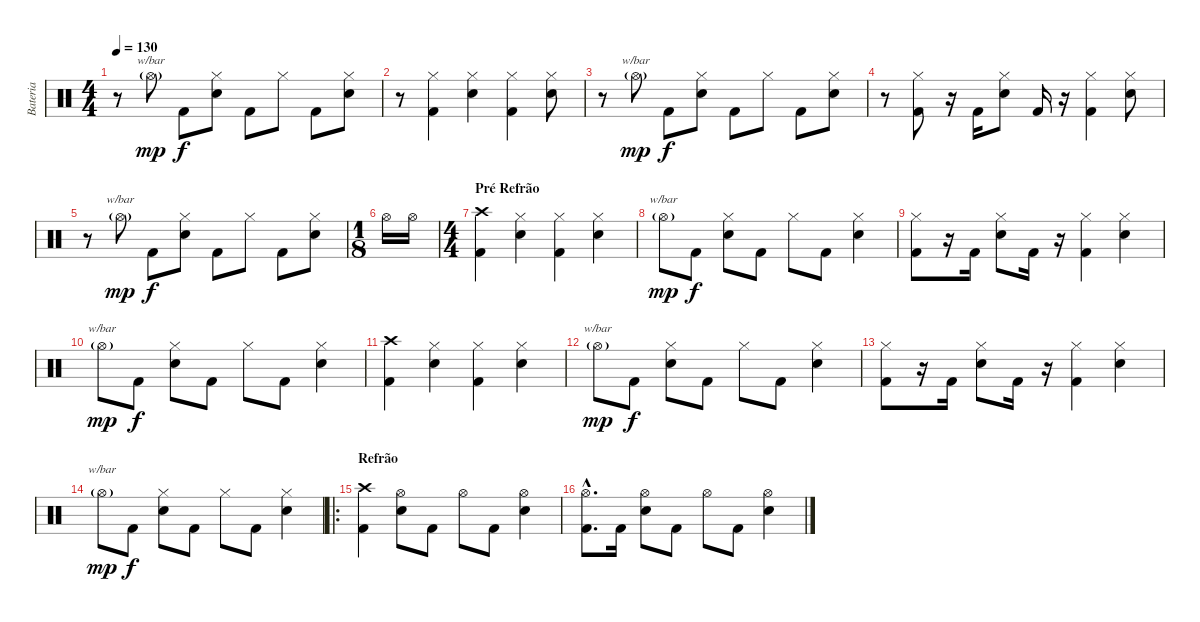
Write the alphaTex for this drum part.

\track ("Bateria" "Bateria") {instrument percussion}
\staff {score}
\articulation defaults
\ts (4 4)
\tempo 130
\clef neutral
\ks c
r.8{dy f} "Hi-Hat (open)"{g}.8{tbe (custom default 0 0 45 2 60 2) dy mp} "Kick (hit) 2".8{dy f} ("Hi-Hat (closed)" "Electric Snare (hit)").8 "Kick (hit) 2".8 "Hi-Hat (closed)".8 "Kick (hit) 2".8 ("Hi-Hat (closed)" "Electric Snare (hit)").8 |
r.8 ("Hi-Hat (closed)" "Kick (hit) 2").4 ("Hi-Hat (closed)" "Electric Snare (hit)").4 ("Hi-Hat (closed)" "Kick (hit) 2").4 ("Hi-Hat (closed)" "Electric Snare (hit)").8 |
r.8 "Hi-Hat (open)"{g}.8{tbe (custom default 0 0 45 2 60 2) dy mp} "Kick (hit) 2".8{dy f} ("Hi-Hat (closed)" "Electric Snare (hit)").8 "Kick (hit) 2".8 "Hi-Hat (closed)".8 "Kick (hit) 2".8 ("Hi-Hat (closed)" "Electric Snare (hit)").8 |
r.8 ("Hi-Hat (closed)" "Kick (hit) 2").8 r.16 "Kick (hit) 2".16 ("Hi-Hat (closed)" "Electric Snare (hit)").8 "Kick (hit) 2".16 r.16 ("Hi-Hat (closed)" "Kick (hit) 2").4 ("Hi-Hat (closed)" "Electric Snare (hit)").8 |
r.8 "Hi-Hat (open)"{g}.8{tbe (custom default 0 0 45 2 60 2) dy mp} "Kick (hit) 2".8{dy f} ("Hi-Hat (closed)" "Electric Snare (hit)").8 "Kick (hit) 2".8 "Hi-Hat (closed)".8 "Kick (hit) 2".8 ("Hi-Hat (closed)" "Electric Snare (hit)").8 |
\ts (1 8)
"Hi-Hat (open)".16 "Hi-Hat (open)".16 |
\ts (4 4)
\section ("" "Pré Refrão")
("Crash high (hit)" "Kick (hit) 2").4 ("Hi-Hat (closed)" "Electric Snare (hit)").4 ("Hi-Hat (closed)" "Kick (hit) 2").4 ("Hi-Hat (closed)" "Electric Snare (hit)").4 |
"Hi-Hat (open)"{g}.8{tbe (custom default 0 0 45 2 60 2) dy mp} "Kick (hit) 2".8{dy f} ("Hi-Hat (closed)" "Electric Snare (hit)").8 "Kick (hit) 2".8 "Hi-Hat (closed)".8 "Kick (hit) 2".8 ("Hi-Hat (closed)" "Electric Snare (hit)").4 |
("Hi-Hat (closed)" "Kick (hit) 2").8 r.16 "Kick (hit) 2".16 ("Hi-Hat (closed)" "Electric Snare (hit)").8 "Kick (hit) 2".16 r.16 ("Hi-Hat (closed)" "Kick (hit) 2").4 ("Hi-Hat (closed)" "Electric Snare (hit)").4 |
"Hi-Hat (open)"{g}.8{tbe (custom default 0 0 45 2 60 2) dy mp} "Kick (hit) 2".8{dy f} ("Hi-Hat (closed)" "Electric Snare (hit)").8 "Kick (hit) 2".8 "Hi-Hat (closed)".8 "Kick (hit) 2".8 ("Hi-Hat (closed)" "Electric Snare (hit)").4 |
("Crash high (hit)" "Kick (hit) 2").4 ("Hi-Hat (closed)" "Electric Snare (hit)").4 ("Hi-Hat (closed)" "Kick (hit) 2").4 ("Hi-Hat (closed)" "Electric Snare (hit)").4 |
"Hi-Hat (open)"{g}.8{tbe (custom default 0 0 45 2 60 2) dy mp} "Kick (hit) 2".8{dy f} ("Hi-Hat (closed)" "Electric Snare (hit)").8 "Kick (hit) 2".8 "Hi-Hat (closed)".8 "Kick (hit) 2".8 ("Hi-Hat (closed)" "Electric Snare (hit)").4 |
("Hi-Hat (closed)" "Kick (hit) 2").8 r.16 "Kick (hit) 2".16 ("Hi-Hat (closed)" "Electric Snare (hit)").8 "Kick (hit) 2".16 r.16 ("Hi-Hat (closed)" "Kick (hit) 2").4 ("Hi-Hat (closed)" "Electric Snare (hit)").4 |
"Hi-Hat (open)"{g}.8{tbe (custom default 0 0 45 2 60 2) dy mp} "Kick (hit) 2".8{dy f} ("Hi-Hat (closed)" "Electric Snare (hit)").8 "Kick (hit) 2".8 "Hi-Hat (closed)".8 "Kick (hit) 2".8 ("Hi-Hat (closed)" "Electric Snare (hit)").4 |
\ro
\section ("" "Refrão")
("Crash high (hit)" "Kick (hit) 2").4 ("Hi-Hat (open)" "Electric Snare (hit)").8 "Kick (hit) 2".8 "Hi-Hat (open)".8 "Kick (hit) 2".8 ("Hi-Hat (open)" "Electric Snare (hit)").4 |
("Hi-Hat (open)"{hac} "Kick (hit) 2"{hac}).8{d} "Kick (hit) 2".16 ("Hi-Hat (open)" "Electric Snare (hit)").8 "Kick (hit) 2".8 "Hi-Hat (open)".8 "Kick (hit) 2".8 ("Hi-Hat (open)" "Electric Snare (hit)").4
